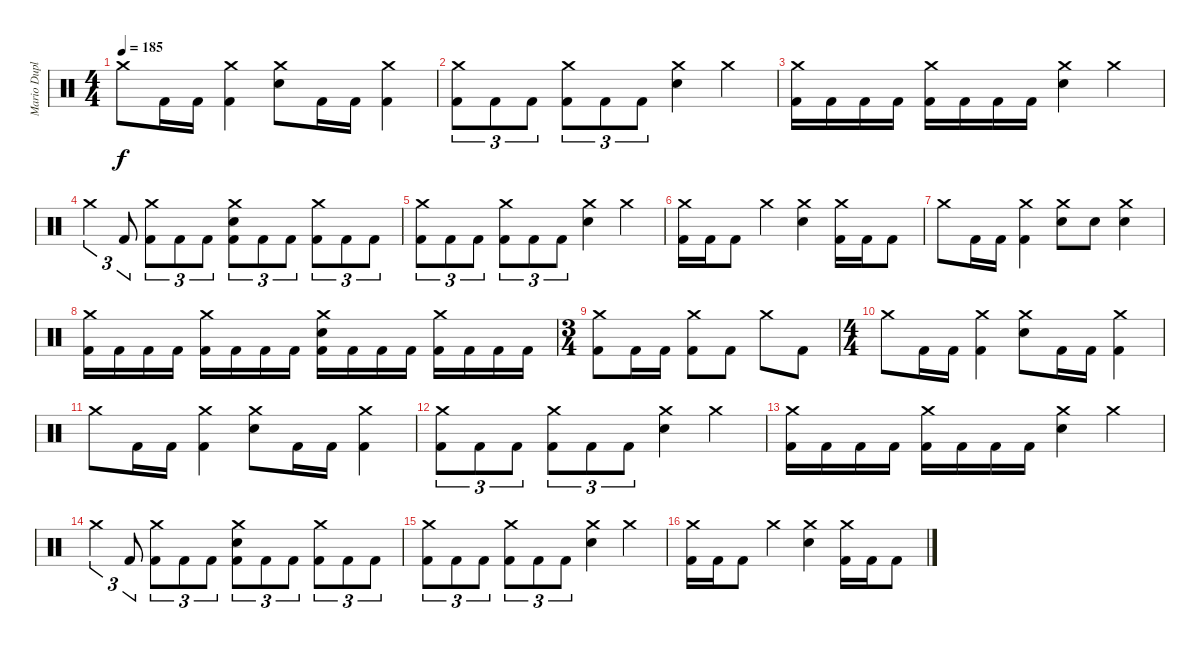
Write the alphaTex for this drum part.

\track ("Mario Duplantier" "Mario Dupl") {instrument percussion}
\staff {score}
\articulation defaults
\ts (4 4)
\tempo 185
\clef neutral
\ks c "Crash medium (hit)".8{dy f} "Kick (hit) 2".16 "Kick (hit) 2".16
("Crash medium (hit)" "Kick (hit) 2").4 ("Crash medium (hit)" "Electric Snare (hit)").8 "Kick (hit) 2".16 "Kick (hit) 2".16 ("Crash medium (hit)" "Kick (hit) 2").4 |
("Crash medium (hit)" "Kick (hit) 2").8{tu (3 2)} "Kick (hit) 2".8{tu (3 2)} "Kick (hit) 2".8{tu (3 2)} ("Crash medium (hit)" "Kick (hit) 2").8{tu (3 2)} "Kick (hit) 2".8{tu (3 2)} "Kick (hit) 2".8{tu (3 2)} ("Crash medium (hit)" "Electric Snare (hit)").4 "Crash medium (hit)".4 |
("Crash medium (hit)" "Kick (hit) 2").16 "Kick (hit) 2".16 "Kick (hit) 2".16 "Kick (hit) 2".16 ("Crash medium (hit)" "Kick (hit) 2").16 "Kick (hit) 2".16 "Kick (hit) 2".16 "Kick (hit) 2".16 ("Crash medium (hit)" "Electric Snare (hit)").4 "Crash medium (hit)".4 |
"Crash medium (hit)".4{tu (3 2)} "Kick (hit) 2".8{tu (3 2)} ("Crash medium (hit)" "Kick (hit) 2").8{tu (3 2)} "Kick (hit) 2".8{tu (3 2)} "Kick (hit) 2".8{tu (3 2)} ("Crash medium (hit)" "Electric Snare (hit)" "Kick (hit) 2").8{tu (3 2)} "Kick (hit) 2".8{tu (3 2)} "Kick (hit) 2".8{tu (3 2)} ("Crash medium (hit)" "Kick (hit) 2").8{tu (3 2)} "Kick (hit) 2".8{tu (3 2)} "Kick (hit) 2".8{tu (3 2)} |
("Crash medium (hit)" "Kick (hit) 2").8{tu (3 2)} "Kick (hit) 2".8{tu (3 2)} "Kick (hit) 2".8{tu (3 2)} ("Crash medium (hit)" "Kick (hit) 2").8{tu (3 2)} "Kick (hit) 2".8{tu (3 2)} "Kick (hit) 2".8{tu (3 2)} ("Crash medium (hit)" "Electric Snare (hit)").4 "Crash medium (hit)".4 |
("Crash medium (hit)" "Kick (hit) 2").16 "Kick (hit) 2".16 "Kick (hit) 2".8 "Crash medium (hit)".4 ("Crash medium (hit)" "Electric Snare (hit)").4 ("Crash medium (hit)" "Kick (hit) 2").16 "Kick (hit) 2".16 "Kick (hit) 2".8 |
"Crash medium (hit)".8 "Kick (hit) 2".16 "Kick (hit) 2".16 ("Crash medium (hit)" "Kick (hit) 2").4 ("Crash medium (hit)" "Electric Snare (hit)").8 "Electric Snare (hit)".8 ("Crash medium (hit)" "Electric Snare (hit)").4 |
("Crash medium (hit)" "Kick (hit) 2").16 "Kick (hit) 2".16 "Kick (hit) 2".16 "Kick (hit) 2".16 ("Crash medium (hit)" "Kick (hit) 2").16 "Kick (hit) 2".16 "Kick (hit) 2".16 "Kick (hit) 2".16 ("Crash medium (hit)" "Electric Snare (hit)" "Kick (hit) 2").16 "Kick (hit) 2".16 "Kick (hit) 2".16 "Kick (hit) 2".16 ("Crash medium (hit)" "Kick (hit) 2").16 "Kick (hit) 2".16 "Kick (hit) 2".16 "Kick (hit) 2".16 |
\ts (3 4)
("Crash medium (hit)" "Kick (hit) 2").8 "Kick (hit) 2".16 "Kick (hit) 2".16 ("Crash medium (hit)" "Kick (hit) 2").8 "Kick (hit) 2".8 "Crash medium (hit)".8 "Kick (hit) 2".8 |
\ts (4 4)
"Crash medium (hit)".8 "Kick (hit) 2".16 "Kick (hit) 2".16 ("Crash medium (hit)" "Kick (hit) 2").4 ("Crash medium (hit)" "Electric Snare (hit)").8 "Kick (hit) 2".16 "Kick (hit) 2".16 ("Crash medium (hit)" "Kick (hit) 2").4 |
"Crash medium (hit)".8 "Kick (hit) 2".16 "Kick (hit) 2".16 ("Crash medium (hit)" "Kick (hit) 2").4 ("Crash medium (hit)" "Electric Snare (hit)").8 "Kick (hit) 2".16 "Kick (hit) 2".16 ("Crash medium (hit)" "Kick (hit) 2").4 |
("Crash medium (hit)" "Kick (hit) 2").8{tu (3 2)} "Kick (hit) 2".8{tu (3 2)} "Kick (hit) 2".8{tu (3 2)} ("Crash medium (hit)" "Kick (hit) 2").8{tu (3 2)} "Kick (hit) 2".8{tu (3 2)} "Kick (hit) 2".8{tu (3 2)} ("Crash medium (hit)" "Electric Snare (hit)").4 "Crash medium (hit)".4 |
("Crash medium (hit)" "Kick (hit) 2").16 "Kick (hit) 2".16 "Kick (hit) 2".16 "Kick (hit) 2".16 ("Crash medium (hit)" "Kick (hit) 2").16 "Kick (hit) 2".16 "Kick (hit) 2".16 "Kick (hit) 2".16 ("Crash medium (hit)" "Electric Snare (hit)").4 "Crash medium (hit)".4 |
"Crash medium (hit)".4{tu (3 2)} "Kick (hit) 2".8{tu (3 2)} ("Crash medium (hit)" "Kick (hit) 2").8{tu (3 2)} "Kick (hit) 2".8{tu (3 2)} "Kick (hit) 2".8{tu (3 2)} ("Crash medium (hit)" "Electric Snare (hit)" "Kick (hit) 2").8{tu (3 2)} "Kick (hit) 2".8{tu (3 2)} "Kick (hit) 2".8{tu (3 2)} ("Crash medium (hit)" "Kick (hit) 2").8{tu (3 2)} "Kick (hit) 2".8{tu (3 2)} "Kick (hit) 2".8{tu (3 2)} |
("Crash medium (hit)" "Kick (hit) 2").8{tu (3 2)} "Kick (hit) 2".8{tu (3 2)} "Kick (hit) 2".8{tu (3 2)} ("Crash medium (hit)" "Kick (hit) 2").8{tu (3 2)} "Kick (hit) 2".8{tu (3 2)} "Kick (hit) 2".8{tu (3 2)} ("Crash medium (hit)" "Electric Snare (hit)").4 "Crash medium (hit)".4 |
("Crash medium (hit)" "Kick (hit) 2").16 "Kick (hit) 2".16 "Kick (hit) 2".8 "Crash medium (hit)".4 ("Crash medium (hit)" "Electric Snare (hit)").4 ("Crash medium (hit)" "Kick (hit) 2").16 "Kick (hit) 2".16 "Kick (hit) 2".8
